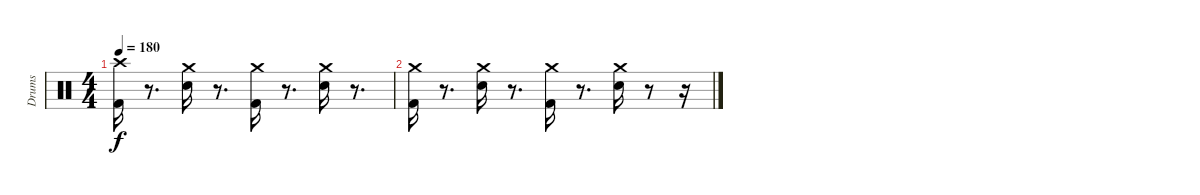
\track ("Drums" "Drums") {instrument percussion}
\staff {score}
\articulation defaults
\ts (4 4)
\tempo 180
\clef neutral
\ks c
("Kick (hit) 2" "Crash high (hit)").16{dy f} r.8{d} ("Snare (hit) 2" "Crash medium (hit)").16 r.8{d} ("Kick (hit) 2" "Crash medium (hit)").16 r.8{d} ("Snare (hit) 2" "Crash medium (hit)").16 r.8{d} |
("Kick (hit) 2" "Crash medium (hit)").16 r.8{d} ("Snare (hit) 2" "Crash medium (hit)").16 r.8{d} ("Kick (hit) 2" "Crash medium (hit)").16 r.8{d} ("Snare (hit) 2" "Crash medium (hit)").16 r.8 r.16
